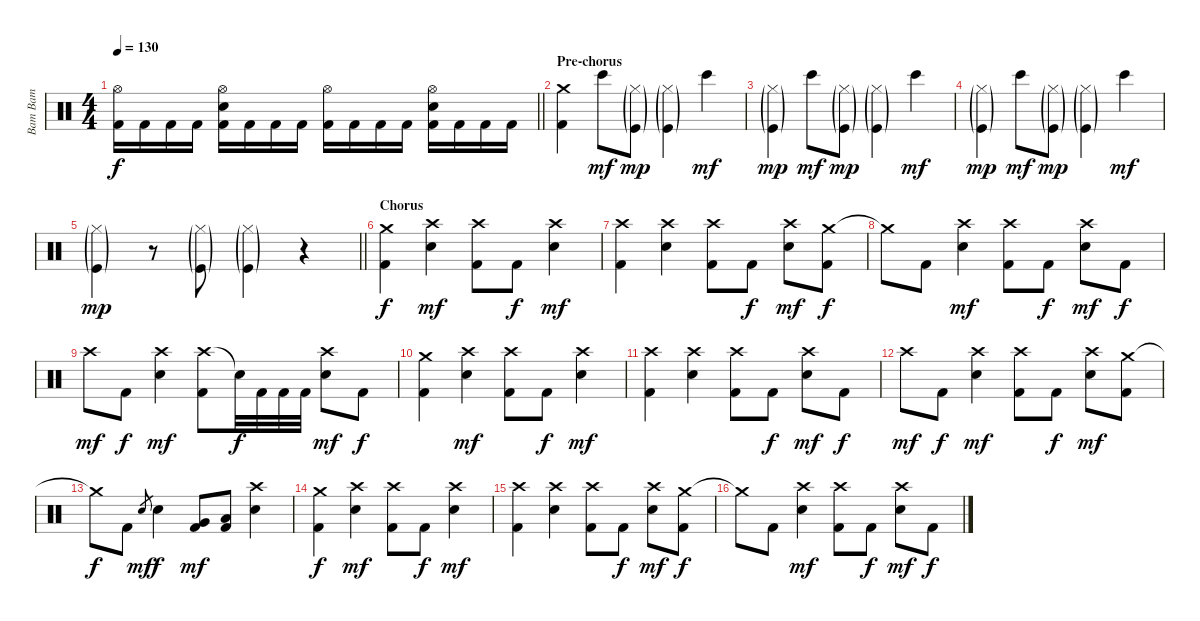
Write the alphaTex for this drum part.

\track ("Bam Bam" "Bam Bam") {instrument percussion}
\staff {score}
\articulation defaults
\ts (4 4)
\tempo 130
\clef neutral
\barLineRight lightlight
\ks c
("Hi-Hat (open)" "Kick (hit) 2").16{dy f} "Kick (hit) 2".16 "Kick (hit) 2".16 "Kick (hit) 2".16 ("Hi-Hat (open)" "Electric Snare (hit)" "Kick (hit) 2").16 "Kick (hit) 2".16 "Kick (hit) 2".16 "Kick (hit) 2".16 ("Hi-Hat (open)" "Kick (hit) 2").16 "Kick (hit) 2".16 "Kick (hit) 2".16 "Kick (hit) 2".16 ("Hi-Hat (open)" "Electric Snare (hit)" "Kick (hit) 2").16 "Kick (hit) 2".16 "Kick (hit) 2".16 "Kick (hit) 2".16 |
\section ("" "Pre-chorus")
("Crash medium (hit)" "Kick (hit) 2").4 "Bongo High (hit)".8{dy mf} ("Hi-Hat (closed)"{g} "Kick (hit)"{g}).8{dy mp} ("Hi-Hat (closed)"{g} "Kick (hit)"{g}).4 "Bongo High (hit)".4{dy mf} |
("Hi-Hat (closed)"{g} "Kick (hit)"{g}).4{dy mp} "Bongo High (hit)".8{dy mf} ("Hi-Hat (closed)"{g} "Kick (hit)"{g}).8{dy mp} ("Hi-Hat (closed)"{g} "Kick (hit)"{g}).4 "Bongo High (hit)".4{dy mf} |
("Hi-Hat (closed)"{g} "Kick (hit)"{g}).4{dy mp} "Bongo High (hit)".8{dy mf} ("Hi-Hat (closed)"{g} "Kick (hit)"{g}).8{dy mp} ("Hi-Hat (closed)"{g} "Kick (hit)"{g}).4 "Bongo High (hit)".4{dy mf} |
\barLineRight lightlight
("Hi-Hat (closed)"{g} "Kick (hit)"{g}).4{dy mp} r.8 ("Hi-Hat (closed)"{g} "Kick (hit)"{g}).8 ("Hi-Hat (closed)"{g} "Kick (hit)"{g}).4 r.4 |
\section ("" "Chorus")
("Crash medium (hit)" "Kick (hit) 2").4{dy f} ("Crash high (hit)" "Electric Snare (hit)").4{dy mf} ("Crash high (hit)" "Kick (hit) 2").8 "Kick (hit) 2".8{dy f} ("Crash high (hit)" "Electric Snare (hit)").4{dy mf} |
("Crash high (hit)" "Kick (hit) 2").4 ("Crash high (hit)" "Electric Snare (hit)").4 ("Crash high (hit)" "Kick (hit) 2").8 "Kick (hit) 2".8{dy f} ("Crash high (hit)" "Electric Snare (hit)").8{dy mf} ("Crash medium (hit)" "Kick (hit) 2").8{dy f} |
"Crash medium (hit)"{t}.8 "Kick (hit) 2".8 ("Crash high (hit)" "Electric Snare (hit)").4{dy mf} ("Crash high (hit)" "Kick (hit) 2").8 "Kick (hit) 2".8{dy f} ("Crash high (hit)" "Electric Snare (hit)").8{dy mf} "Kick (hit) 2".8{dy f} |
"Crash high (hit)".8{dy mf} "Kick (hit) 2".8{dy f} ("Crash high (hit)" "Electric Snare (hit)").4{dy mf} ("Crash high (hit)" "Kick (hit) 2").8 "Snare (hit)"{t}.32{dy f} "Kick (hit) 2".32 "Kick (hit) 2".32 "Kick (hit) 2".32 ("Crash high (hit)" "Electric Snare (hit)").8{dy mf} "Kick (hit) 2".8{dy f} |
("Crash medium (hit)" "Kick (hit) 2").4 ("Crash high (hit)" "Electric Snare (hit)").4{dy mf} ("Crash high (hit)" "Kick (hit) 2").8 "Kick (hit) 2".8{dy f} ("Crash high (hit)" "Electric Snare (hit)").4{dy mf} |
("Crash high (hit)" "Kick (hit) 2").4 ("Crash high (hit)" "Electric Snare (hit)").4 ("Crash high (hit)" "Kick (hit) 2").8 "Kick (hit) 2".8{dy f} ("Crash high (hit)" "Electric Snare (hit)").8{dy mf} "Kick (hit) 2".8{dy f} |
"Crash high (hit)".8{dy mf} "Kick (hit) 2".8{dy f} ("Crash high (hit)" "Electric Snare (hit)").4{dy mf} ("Crash high (hit)" "Kick (hit) 2").8 "Kick (hit) 2".8{dy f} ("Crash high (hit)" "Electric Snare (hit)").8{dy mf} ("Crash medium (hit)" "Kick (hit) 2").8 |
"Crash medium (hit)"{t}.8{dy f} "Kick (hit) 2".8 "Electric Snare (hit)".8{gr dy mf} "Electric Snare (hit)".4{dy f} ("Very Low Tom (hit)" "Kick (hit) 2").8{dy mf} ("Low Floor Tom (hit)" "Kick (hit) 2").8 ("Crash high (hit)" "Electric Snare (hit)").4 |
("Crash medium (hit)" "Kick (hit) 2").4{dy f} ("Crash high (hit)" "Electric Snare (hit)").4{dy mf} ("Crash high (hit)" "Kick (hit) 2").8 "Kick (hit) 2".8{dy f} ("Crash high (hit)" "Electric Snare (hit)").4{dy mf} |
("Crash high (hit)" "Kick (hit) 2").4 ("Crash high (hit)" "Electric Snare (hit)").4 ("Crash high (hit)" "Kick (hit) 2").8 "Kick (hit) 2".8{dy f} ("Crash high (hit)" "Electric Snare (hit)").8{dy mf} ("Crash medium (hit)" "Kick (hit) 2").8{dy f} |
"Crash medium (hit)"{t}.8 "Kick (hit) 2".8 ("Crash high (hit)" "Electric Snare (hit)").4{dy mf} ("Crash high (hit)" "Kick (hit) 2").8 "Kick (hit) 2".8{dy f} ("Crash high (hit)" "Electric Snare (hit)").8{dy mf} "Kick (hit) 2".8{dy f}
